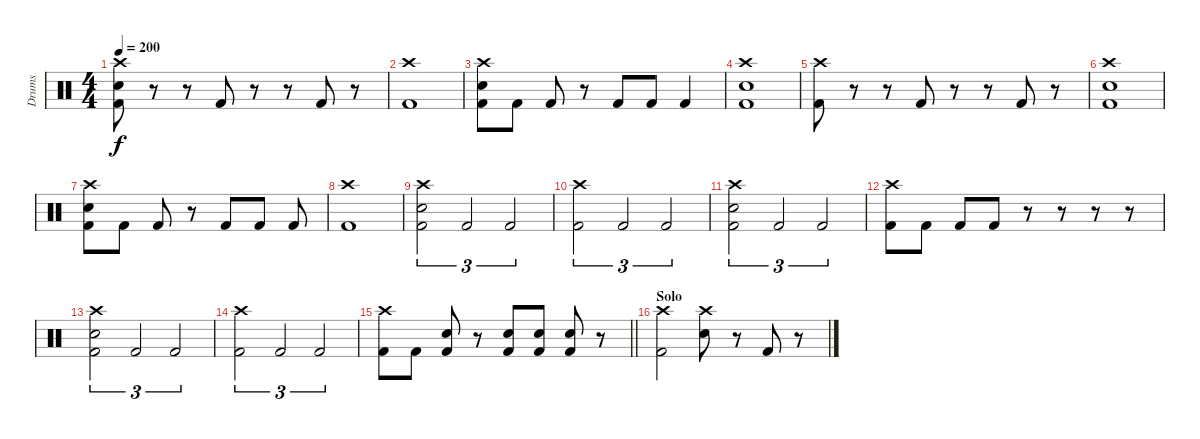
\track ("Drums" "Drums") {instrument percussion}
\staff {score}
\articulation defaults
\ts (4 4)
\tempo 200
\clef neutral
\ks c
("Crash high (hit)" "Electric Snare (hit)" "Kick (hit) 2").8{dy f} r.8 r.8 "Kick (hit) 2".8 r.8 r.8 "Kick (hit) 2".8 r.8 |
("Crash high (hit)" "Kick (hit) 2").1 |
("Crash high (hit)" "Electric Snare (hit)" "Kick (hit) 2").8 "Kick (hit) 2".8 "Kick (hit) 2".8 r.8 "Kick (hit) 2".8 "Kick (hit) 2".8 "Kick (hit) 2".4 |
("Crash high (hit)" "Electric Snare (hit)" "Kick (hit) 2").1 |
("Crash high (hit)" "Kick (hit) 2").8 r.8 r.8 "Kick (hit) 2".8 r.8 r.8 "Kick (hit) 2".8 r.8 |
("Crash high (hit)" "Electric Snare (hit)" "Kick (hit) 2").1 |
("Crash high (hit)" "Electric Snare (hit)" "Kick (hit) 2").8 "Kick (hit) 2".8 "Kick (hit) 2".8 r.8 "Kick (hit) 2".8 "Kick (hit) 2".8 "Kick (hit) 2".8 |
("Crash high (hit)" "Kick (hit) 2").1 |
("Crash high (hit)" "Electric Snare (hit)" "Kick (hit) 2").2{tu (3 2)} "Kick (hit) 2".2{tu (3 2)} "Kick (hit) 2".2{tu (3 2)} |
("Crash high (hit)" "Kick (hit) 2").2{tu (3 2)} "Kick (hit) 2".2{tu (3 2)} "Kick (hit) 2".2{tu (3 2)} |
("Crash high (hit)" "Electric Snare (hit)" "Kick (hit) 2").2{tu (3 2)} "Kick (hit) 2".2{tu (3 2)} "Kick (hit) 2".2{tu (3 2)} |
("Crash high (hit)" "Kick (hit) 2").8 "Kick (hit) 2".8 "Kick (hit) 2".8 "Kick (hit) 2".8 r.8 r.8 r.8 r.8 |
("Crash high (hit)" "Electric Snare (hit)" "Kick (hit) 2").2{tu (3 2)} "Kick (hit) 2".2{tu (3 2)} "Kick (hit) 2".2{tu (3 2)} |
("Crash high (hit)" "Kick (hit) 2").2{tu (3 2)} "Kick (hit) 2".2{tu (3 2)} "Kick (hit) 2".2{tu (3 2)} |
\barLineRight lightlight
("Crash high (hit)" "Kick (hit) 2").8 "Kick (hit) 2".8 ("Electric Snare (hit)" "Kick (hit) 2").8 r.8 ("Electric Snare (hit)" "Kick (hit) 2").8 ("Electric Snare (hit)" "Kick (hit) 2").8 ("Electric Snare (hit)" "Kick (hit) 2").8 r.8 |
\section ("" "Solo")
("Crash high (hit)" "Kick (hit) 2").2 ("Crash high (hit)" "Electric Snare (hit)").8 r.8 "Kick (hit) 2".8 r.8
